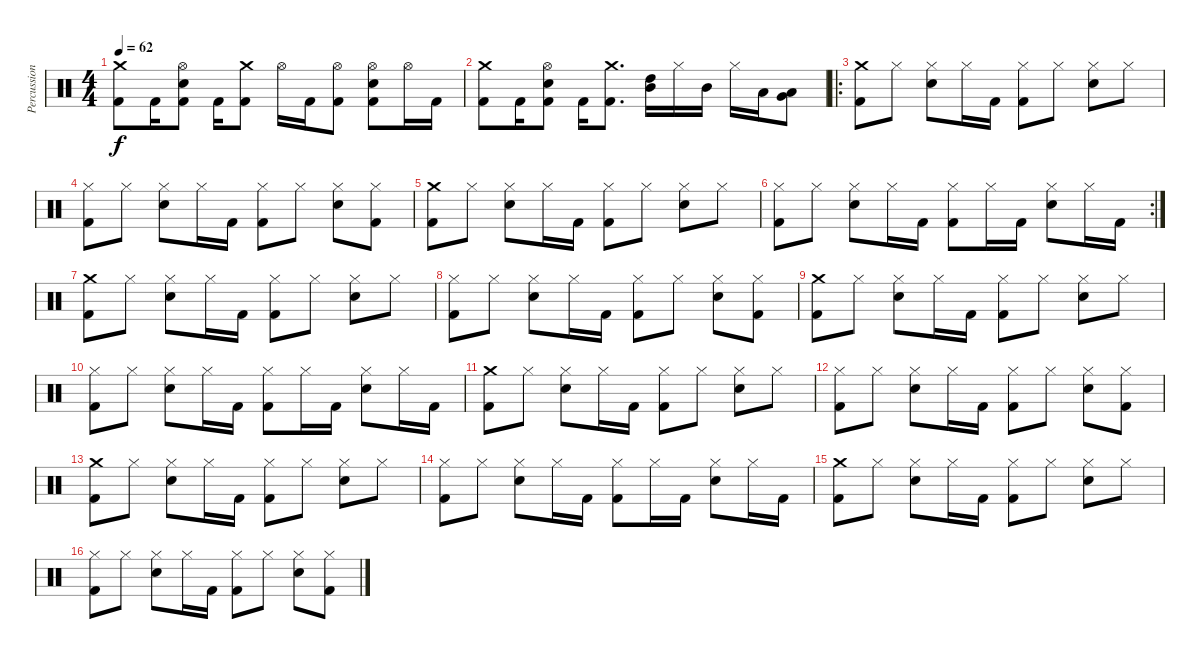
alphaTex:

\track ("Percussion" "Percussion") {instrument percussion}
\staff {score}
\articulation defaults
\ts (4 4)
\tempo 62
\clef neutral
\ks c
("Crash medium (hit)" "Kick (hit) 2").8{dy f} "Kick (hit) 2".16 ("Hi-Hat (open)" "Electric Snare (hit)" "Kick (hit) 2").8 "Kick (hit) 2".16 ("Crash medium (hit)" "Kick (hit) 2").8 "Hi-Hat (open)".16 "Kick (hit) 2".16 ("Hi-Hat (open)" "Kick (hit) 2").8 ("Hi-Hat (open)" "Electric Snare (hit)" "Kick (hit) 2").8 "Hi-Hat (open)".16 "Kick (hit) 2".16 |
("Crash medium (hit)" "Kick (hit) 2").8 "Kick (hit) 2".16 ("Hi-Hat (open)" "Electric Snare (hit)" "Kick (hit) 2").8 "Kick (hit) 2".16 ("Crash medium (hit)" "Kick (hit) 2").8{d} ("Mid Tom (hit)" "High Tom (hit)").16 "Hi-Hat (closed)".16 "Mid Tom (hit)".16 "Hi-Hat (closed)".16 "Low Tom (hit)".16 ("Very Low Tom (hit)" "Low Floor Tom (hit)").8 |
\ro
("Crash medium (hit)" "Kick (hit) 2").8 "Hi-Hat (closed)".8 ("Hi-Hat (closed)" "Electric Snare (hit)").8 "Hi-Hat (closed)".16 "Kick (hit) 2".16 ("Hi-Hat (closed)" "Kick (hit) 2").8 "Hi-Hat (closed)".8 ("Hi-Hat (closed)" "Electric Snare (hit)").8 "Hi-Hat (closed)".8 |
("Hi-Hat (closed)" "Kick (hit) 2").8 "Hi-Hat (closed)".8 ("Hi-Hat (closed)" "Electric Snare (hit)").8 "Hi-Hat (closed)".16 "Kick (hit) 2".16 ("Hi-Hat (closed)" "Kick (hit) 2").8 "Hi-Hat (closed)".8 ("Hi-Hat (closed)" "Electric Snare (hit)").8 ("Hi-Hat (closed)" "Kick (hit) 2").8 |
("Crash medium (hit)" "Kick (hit) 2").8 "Hi-Hat (closed)".8 ("Hi-Hat (closed)" "Electric Snare (hit)").8 "Hi-Hat (closed)".16 "Kick (hit) 2".16 ("Hi-Hat (closed)" "Kick (hit) 2").8 "Hi-Hat (closed)".8 ("Hi-Hat (closed)" "Electric Snare (hit)").8 "Hi-Hat (closed)".8 |
\rc 2
("Hi-Hat (closed)" "Kick (hit) 2").8 "Hi-Hat (closed)".8 ("Hi-Hat (closed)" "Electric Snare (hit)").8 "Hi-Hat (closed)".16 "Kick (hit) 2".16 ("Hi-Hat (closed)" "Kick (hit) 2").8 "Hi-Hat (closed)".16 "Kick (hit) 2".16 ("Hi-Hat (closed)" "Electric Snare (hit)").8 "Hi-Hat (closed)".16 "Kick (hit) 2".16 |
("Crash medium (hit)" "Kick (hit) 2").8 "Hi-Hat (closed)".8 ("Hi-Hat (closed)" "Electric Snare (hit)").8 "Hi-Hat (closed)".16 "Kick (hit) 2".16 ("Hi-Hat (closed)" "Kick (hit) 2").8 "Hi-Hat (closed)".8 ("Hi-Hat (closed)" "Electric Snare (hit)").8 "Hi-Hat (closed)".8 |
("Hi-Hat (closed)" "Kick (hit) 2").8 "Hi-Hat (closed)".8 ("Hi-Hat (closed)" "Electric Snare (hit)").8 "Hi-Hat (closed)".16 "Kick (hit) 2".16 ("Hi-Hat (closed)" "Kick (hit) 2").8 "Hi-Hat (closed)".8 ("Hi-Hat (closed)" "Electric Snare (hit)").8 ("Hi-Hat (closed)" "Kick (hit) 2").8 |
("Crash medium (hit)" "Kick (hit) 2").8 "Hi-Hat (closed)".8 ("Hi-Hat (closed)" "Electric Snare (hit)").8 "Hi-Hat (closed)".16 "Kick (hit) 2".16 ("Hi-Hat (closed)" "Kick (hit) 2").8 "Hi-Hat (closed)".8 ("Hi-Hat (closed)" "Electric Snare (hit)").8 "Hi-Hat (closed)".8 |
("Hi-Hat (closed)" "Kick (hit) 2").8 "Hi-Hat (closed)".8 ("Hi-Hat (closed)" "Electric Snare (hit)").8 "Hi-Hat (closed)".16 "Kick (hit) 2".16 ("Hi-Hat (closed)" "Kick (hit) 2").8 "Hi-Hat (closed)".16 "Kick (hit) 2".16 ("Hi-Hat (closed)" "Electric Snare (hit)").8 "Hi-Hat (closed)".16 "Kick (hit) 2".16 |
("Crash medium (hit)" "Kick (hit) 2").8 "Hi-Hat (closed)".8 ("Hi-Hat (closed)" "Electric Snare (hit)").8 "Hi-Hat (closed)".16 "Kick (hit) 2".16 ("Hi-Hat (closed)" "Kick (hit) 2").8 "Hi-Hat (closed)".8 ("Hi-Hat (closed)" "Electric Snare (hit)").8 "Hi-Hat (closed)".8 |
("Hi-Hat (closed)" "Kick (hit) 2").8 "Hi-Hat (closed)".8 ("Hi-Hat (closed)" "Electric Snare (hit)").8 "Hi-Hat (closed)".16 "Kick (hit) 2".16 ("Hi-Hat (closed)" "Kick (hit) 2").8 "Hi-Hat (closed)".8 ("Hi-Hat (closed)" "Electric Snare (hit)").8 ("Hi-Hat (closed)" "Kick (hit) 2").8 |
("Crash medium (hit)" "Kick (hit) 2").8 "Hi-Hat (closed)".8 ("Hi-Hat (closed)" "Electric Snare (hit)").8 "Hi-Hat (closed)".16 "Kick (hit) 2".16 ("Hi-Hat (closed)" "Kick (hit) 2").8 "Hi-Hat (closed)".8 ("Hi-Hat (closed)" "Electric Snare (hit)").8 "Hi-Hat (closed)".8 |
("Hi-Hat (closed)" "Kick (hit) 2").8 "Hi-Hat (closed)".8 ("Hi-Hat (closed)" "Electric Snare (hit)").8 "Hi-Hat (closed)".16 "Kick (hit) 2".16 ("Hi-Hat (closed)" "Kick (hit) 2").8 "Hi-Hat (closed)".16 "Kick (hit) 2".16 ("Hi-Hat (closed)" "Electric Snare (hit)").8 "Hi-Hat (closed)".16 "Kick (hit) 2".16 |
("Crash medium (hit)" "Kick (hit) 2").8 "Hi-Hat (closed)".8 ("Hi-Hat (closed)" "Electric Snare (hit)").8 "Hi-Hat (closed)".16 "Kick (hit) 2".16 ("Hi-Hat (closed)" "Kick (hit) 2").8 "Hi-Hat (closed)".8 ("Hi-Hat (closed)" "Electric Snare (hit)").8 "Hi-Hat (closed)".8 |
("Hi-Hat (closed)" "Kick (hit) 2").8 "Hi-Hat (closed)".8 ("Hi-Hat (closed)" "Electric Snare (hit)").8 "Hi-Hat (closed)".16 "Kick (hit) 2".16 ("Hi-Hat (closed)" "Kick (hit) 2").8 "Hi-Hat (closed)".8 ("Hi-Hat (closed)" "Electric Snare (hit)").8 ("Hi-Hat (closed)" "Kick (hit) 2").8
